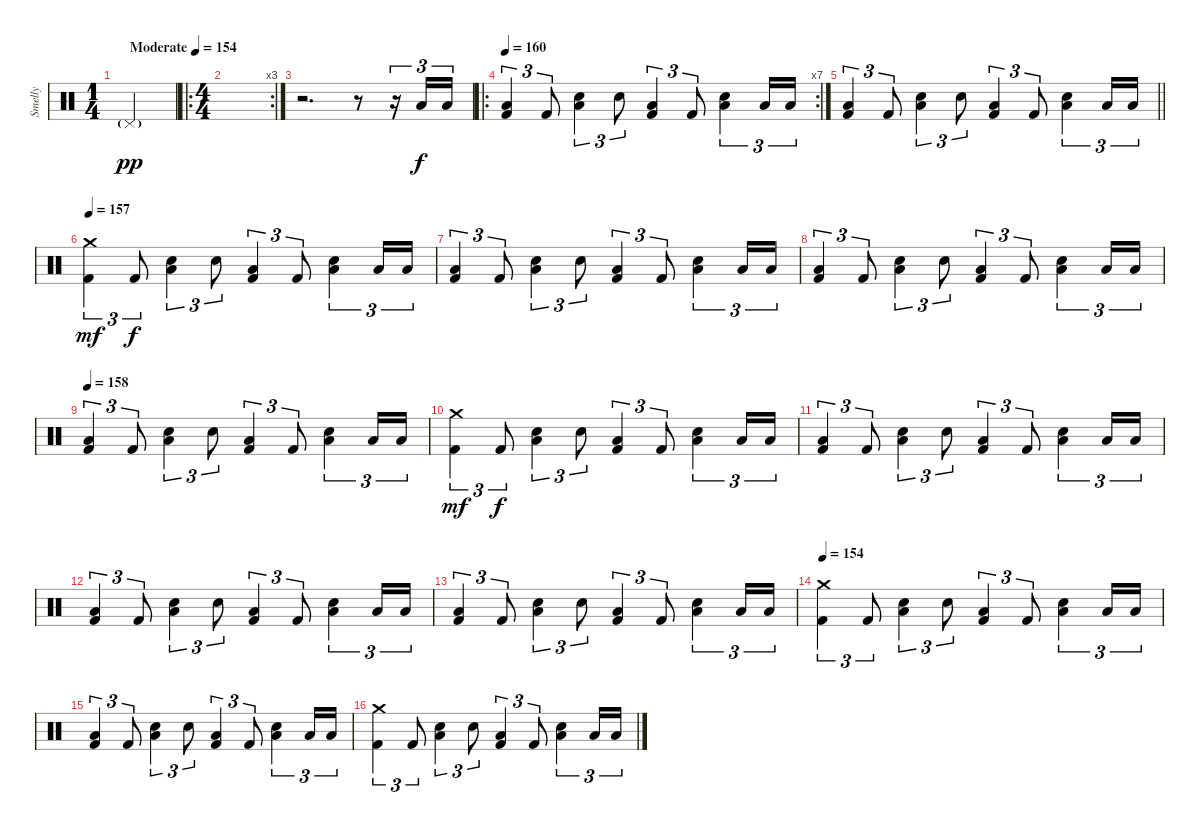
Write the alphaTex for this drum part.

\track ("Smelly" "Smelly") {instrument percussion}
\staff {score}
\articulation defaults
\ts (1 4)
\tempo (154 "Moderate")
\clef neutral
\ks c "Pedal Hi-Hat (hit)"{g}.4{dy pp}
|
\ro
\rc 3
\ts (4 4)
|
r.2{d} r.8 r.16{tu (3 2)} "Low Floor Tom (hit)".16{tu (3 2) dy f} "Low Floor Tom (hit)".16{tu (3 2)} |
\ro
\rc 7
\tempo 160
("Low Floor Tom (hit)" "Kick (hit) 2").4{tu (3 2)} "Kick (hit) 2".8{tu (3 2)} ("Electric Snare (hit)" "Low Floor Tom (hit)").4{tu (3 2)} "Electric Snare (hit)".8{tu (3 2)} ("Low Floor Tom (hit)" "Kick (hit) 2").4{tu (3 2)} "Kick (hit) 2".8{tu (3 2)} ("Electric Snare (hit)" "Low Floor Tom (hit)").4{tu (3 2)} "Low Floor Tom (hit)".16{tu (3 2)} "Low Floor Tom (hit)".16{tu (3 2)} |
\barLineRight lightlight
("Low Floor Tom (hit)" "Kick (hit) 2").4{tu (3 2)} "Kick (hit) 2".8{tu (3 2)} ("Electric Snare (hit)" "Low Floor Tom (hit)").4{tu (3 2)} "Electric Snare (hit)".8{tu (3 2)} ("Low Floor Tom (hit)" "Kick (hit) 2").4{tu (3 2)} "Kick (hit) 2".8{tu (3 2)} ("Electric Snare (hit)" "Low Floor Tom (hit)").4{tu (3 2)} "Low Floor Tom (hit)".16{tu (3 2)} "Low Floor Tom (hit)".16{tu (3 2)} |
\section ("" "")
\tempo 157
("Crash medium (hit)" "Kick (hit) 2").4{tu (3 2) dy mf} "Kick (hit) 2".8{tu (3 2) dy f} ("Electric Snare (hit)" "Low Floor Tom (hit)").4{tu (3 2)} "Electric Snare (hit)".8{tu (3 2)} ("Low Floor Tom (hit)" "Kick (hit) 2").4{tu (3 2)} "Kick (hit) 2".8{tu (3 2)} ("Electric Snare (hit)" "Low Floor Tom (hit)").4{tu (3 2)} "Low Floor Tom (hit)".16{tu (3 2)} "Low Floor Tom (hit)".16{tu (3 2)} |
("Low Floor Tom (hit)" "Kick (hit) 2").4{tu (3 2)} "Kick (hit) 2".8{tu (3 2)} ("Electric Snare (hit)" "Low Floor Tom (hit)").4{tu (3 2)} "Electric Snare (hit)".8{tu (3 2)} ("Low Floor Tom (hit)" "Kick (hit) 2").4{tu (3 2)} "Kick (hit) 2".8{tu (3 2)} ("Electric Snare (hit)" "Low Floor Tom (hit)").4{tu (3 2)} "Low Floor Tom (hit)".16{tu (3 2)} "Low Floor Tom (hit)".16{tu (3 2)} |
("Low Floor Tom (hit)" "Kick (hit) 2").4{tu (3 2)} "Kick (hit) 2".8{tu (3 2)} ("Electric Snare (hit)" "Low Floor Tom (hit)").4{tu (3 2)} "Electric Snare (hit)".8{tu (3 2)} ("Low Floor Tom (hit)" "Kick (hit) 2").4{tu (3 2)} "Kick (hit) 2".8{tu (3 2)} ("Electric Snare (hit)" "Low Floor Tom (hit)").4{tu (3 2)} "Low Floor Tom (hit)".16{tu (3 2)} "Low Floor Tom (hit)".16{tu (3 2)} |
\tempo 158
("Low Floor Tom (hit)" "Kick (hit) 2").4{tu (3 2)} "Kick (hit) 2".8{tu (3 2)} ("Electric Snare (hit)" "Low Floor Tom (hit)").4{tu (3 2)} "Electric Snare (hit)".8{tu (3 2)} ("Low Floor Tom (hit)" "Kick (hit) 2").4{tu (3 2)} "Kick (hit) 2".8{tu (3 2)} ("Electric Snare (hit)" "Low Floor Tom (hit)").4{tu (3 2)} "Low Floor Tom (hit)".16{tu (3 2)} "Low Floor Tom (hit)".16{tu (3 2)} |
("Crash medium (hit)" "Kick (hit) 2").4{tu (3 2) dy mf} "Kick (hit) 2".8{tu (3 2) dy f} ("Electric Snare (hit)" "Low Floor Tom (hit)").4{tu (3 2)} "Electric Snare (hit)".8{tu (3 2)} ("Low Floor Tom (hit)" "Kick (hit) 2").4{tu (3 2)} "Kick (hit) 2".8{tu (3 2)} ("Electric Snare (hit)" "Low Floor Tom (hit)").4{tu (3 2)} "Low Floor Tom (hit)".16{tu (3 2)} "Low Floor Tom (hit)".16{tu (3 2)} |
("Low Floor Tom (hit)" "Kick (hit) 2").4{tu (3 2)} "Kick (hit) 2".8{tu (3 2)} ("Electric Snare (hit)" "Low Floor Tom (hit)").4{tu (3 2)} "Electric Snare (hit)".8{tu (3 2)} ("Low Floor Tom (hit)" "Kick (hit) 2").4{tu (3 2)} "Kick (hit) 2".8{tu (3 2)} ("Electric Snare (hit)" "Low Floor Tom (hit)").4{tu (3 2)} "Low Floor Tom (hit)".16{tu (3 2)} "Low Floor Tom (hit)".16{tu (3 2)} |
("Low Floor Tom (hit)" "Kick (hit) 2").4{tu (3 2)} "Kick (hit) 2".8{tu (3 2)} ("Electric Snare (hit)" "Low Floor Tom (hit)").4{tu (3 2)} "Electric Snare (hit)".8{tu (3 2)} ("Low Floor Tom (hit)" "Kick (hit) 2").4{tu (3 2)} "Kick (hit) 2".8{tu (3 2)} ("Electric Snare (hit)" "Low Floor Tom (hit)").4{tu (3 2)} "Low Floor Tom (hit)".16{tu (3 2)} "Low Floor Tom (hit)".16{tu (3 2)} |
("Low Floor Tom (hit)" "Kick (hit) 2").4{tu (3 2)} "Kick (hit) 2".8{tu (3 2)} ("Electric Snare (hit)" "Low Floor Tom (hit)").4{tu (3 2)} "Electric Snare (hit)".8{tu (3 2)} ("Low Floor Tom (hit)" "Kick (hit) 2").4{tu (3 2)} "Kick (hit) 2".8{tu (3 2)} ("Electric Snare (hit)" "Low Floor Tom (hit)").4{tu (3 2)} "Low Floor Tom (hit)".16{tu (3 2)} "Low Floor Tom (hit)".16{tu (3 2)} |
\tempo 154
("Crash medium (hit)" "Kick (hit) 2").4{tu (3 2)} "Kick (hit) 2".8{tu (3 2)} ("Electric Snare (hit)" "Low Floor Tom (hit)").4{tu (3 2)} "Electric Snare (hit)".8{tu (3 2)} ("Low Floor Tom (hit)" "Kick (hit) 2").4{tu (3 2)} "Kick (hit) 2".8{tu (3 2)} ("Electric Snare (hit)" "Low Floor Tom (hit)").4{tu (3 2)} "Low Floor Tom (hit)".16{tu (3 2)} "Low Floor Tom (hit)".16{tu (3 2)} |
("Low Floor Tom (hit)" "Kick (hit) 2").4{tu (3 2)} "Kick (hit) 2".8{tu (3 2)} ("Electric Snare (hit)" "Low Floor Tom (hit)").4{tu (3 2)} "Electric Snare (hit)".8{tu (3 2)} ("Low Floor Tom (hit)" "Kick (hit) 2").4{tu (3 2)} "Kick (hit) 2".8{tu (3 2)} ("Electric Snare (hit)" "Low Floor Tom (hit)").4{tu (3 2)} "Low Floor Tom (hit)".16{tu (3 2)} "Low Floor Tom (hit)".16{tu (3 2)} |
("Crash medium (hit)" "Kick (hit) 2").4{tu (3 2)} "Kick (hit) 2".8{tu (3 2)} ("Electric Snare (hit)" "Low Floor Tom (hit)").4{tu (3 2)} "Electric Snare (hit)".8{tu (3 2)} ("Low Floor Tom (hit)" "Kick (hit) 2").4{tu (3 2)} "Kick (hit) 2".8{tu (3 2)} ("Electric Snare (hit)" "Low Floor Tom (hit)").4{tu (3 2)} "Low Floor Tom (hit)".16{tu (3 2)} "Low Floor Tom (hit)".16{tu (3 2)}
